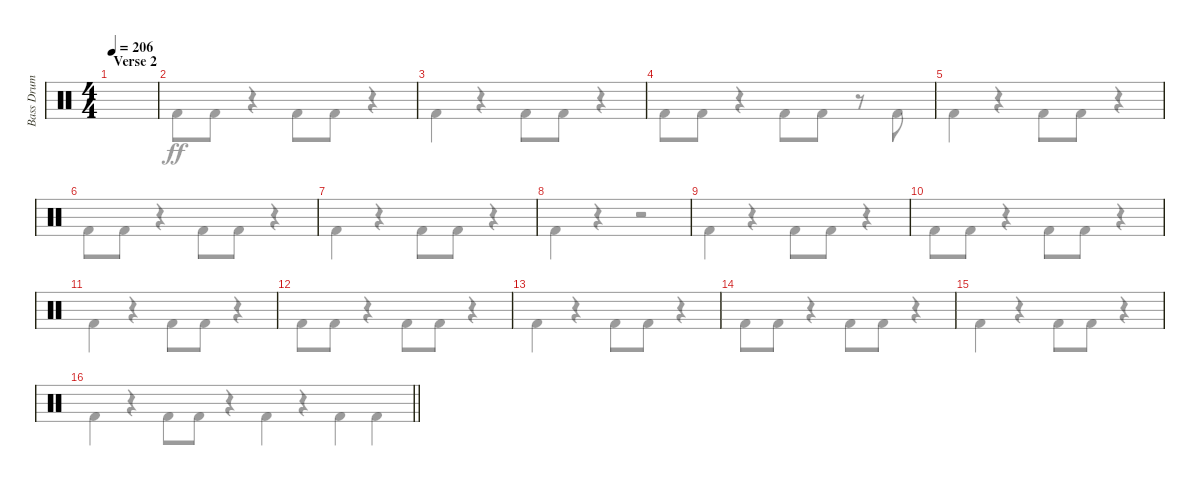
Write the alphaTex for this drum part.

\track ("Bass Drum" "Bass Drum") {instrument percussion}
\staff {score}
\articulation defaults
\voice
\ts (4 4)
\section ("" "Verse 2")
\tempo 206
\clef neutral
\ks c
|
|
|
|
|
|
|
|
|
|
|
|
|
|
|
\barLineRight lightlight
\voice
\clef neutral
\ks c "Kick (hit) 2".4{dy ff}
r.4 "Kick (hit) 2".8 "Kick (hit) 2".8 r.4 |
"Kick (hit) 2".8 "Kick (hit) 2".8 r.4 "Kick (hit) 2".8 "Kick (hit) 2".8 r.4 |
"Kick (hit) 2".4 r.4 "Kick (hit) 2".8 "Kick (hit) 2".8 r.4 |
"Kick (hit) 2".8 "Kick (hit) 2".8 r.4 "Kick (hit) 2".8 "Kick (hit) 2".8 r.8 "Kick (hit) 2".8 |
"Kick (hit) 2".4 r.4 "Kick (hit) 2".8 "Kick (hit) 2".8 r.4 |
"Kick (hit) 2".8 "Kick (hit) 2".8 r.4 "Kick (hit) 2".8 "Kick (hit) 2".8 r.4 |
"Kick (hit) 2".4 r.4 "Kick (hit) 2".8 "Kick (hit) 2".8 r.4 |
"Kick (hit) 2".4 r.4 r.2 |
"Kick (hit) 2".4 r.4 "Kick (hit) 2".8 "Kick (hit) 2".8 r.4 |
"Kick (hit) 2".8 "Kick (hit) 2".8 r.4 "Kick (hit) 2".8 "Kick (hit) 2".8 r.4 |
"Kick (hit) 2".4 r.4 "Kick (hit) 2".8 "Kick (hit) 2".8 r.4 |
"Kick (hit) 2".8 "Kick (hit) 2".8 r.4 "Kick (hit) 2".8 "Kick (hit) 2".8 r.4 |
"Kick (hit) 2".4 r.4 "Kick (hit) 2".8 "Kick (hit) 2".8 r.4 |
"Kick (hit) 2".8 "Kick (hit) 2".8 r.4 "Kick (hit) 2".8 "Kick (hit) 2".8 r.4 |
"Kick (hit) 2".4 r.4 "Kick (hit) 2".8 "Kick (hit) 2".8 r.4 |
\barLineRight lightlight "Kick (hit) 2".4
r.4 "Kick (hit) 2".4 "Kick (hit) 2".4
